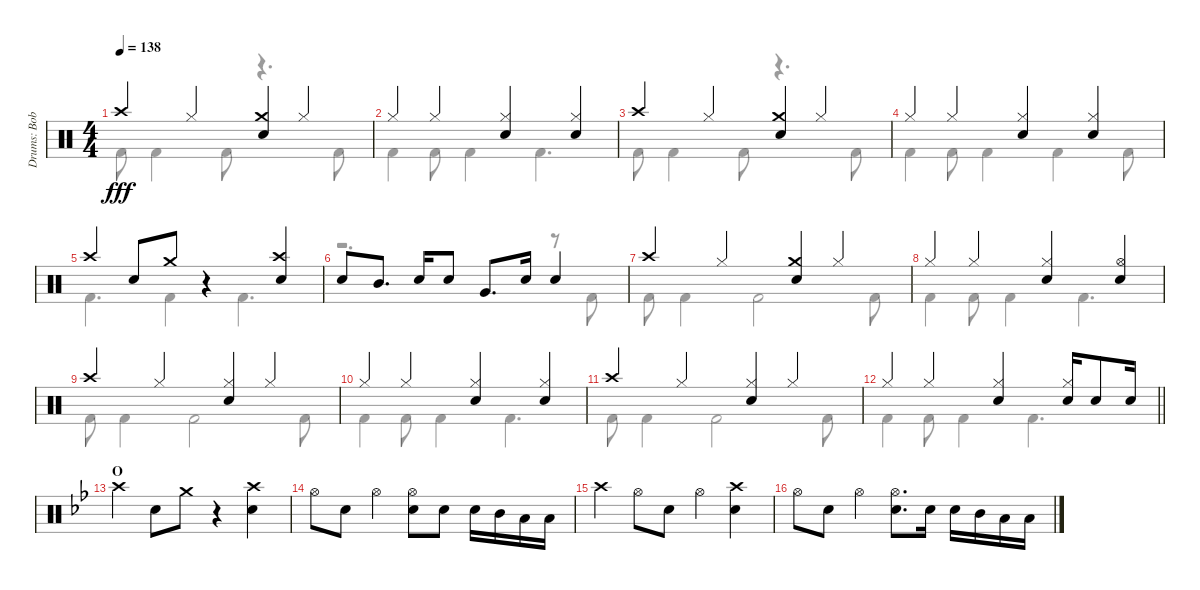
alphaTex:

\track ("Drums: Bobby" "Drums: Bob") {instrument percussion}
\staff {score}
\articulation defaults
\voice
\ts (4 4)
\tempo 138
\clef neutral
\ks c "Crash high (hit)".4{dy fff} "Hi-Hat (closed)".4
("Crash medium (hit)" "Snare (hit) 2").4 "Hi-Hat (closed)".4 |
"Hi-Hat (closed)".4 "Hi-Hat (closed)".4 ("Hi-Hat (closed)" "Snare (hit) 2").4 ("Hi-Hat (closed)" "Snare (hit) 2").4 |
"Crash high (hit)".4 "Hi-Hat (closed)".4 ("Crash medium (hit)" "Snare (hit) 2").4 "Hi-Hat (closed)".4 |
"Hi-Hat (closed)".4 "Hi-Hat (closed)".4 ("Hi-Hat (closed)" "Snare (hit) 2").4 ("Hi-Hat (closed)" "Snare (hit) 2").4 |
"Crash high (hit)".4 "Snare (hit) 2".8 "Crash medium (hit)".8 r.4 ("Crash high (hit)" "Snare (hit) 2").4 |
"Snare (hit) 2".8 "Mid Tom (hit)".8{d} "Snare (hit) 2".16 "Snare (hit) 2".8 "Very Low Tom (hit)".8{d} "Snare (hit) 2".16 "Snare (hit) 2".4 |
"Crash high (hit)".4 "Hi-Hat (closed)".4 ("Crash medium (hit)" "Snare (hit) 2").4 "Hi-Hat (closed)".4 |
"Hi-Hat (closed)".4 "Hi-Hat (closed)".4 ("Hi-Hat (closed)" "Snare (hit) 2").4 ("Hi-Hat (open)" "Snare (hit) 2").4 |
"Crash high (hit)".4 "Hi-Hat (closed)".4 ("Hi-Hat (closed)" "Snare (hit) 2").4 "Hi-Hat (closed)".4 |
"Hi-Hat (closed)".4 "Hi-Hat (closed)".4 ("Hi-Hat (closed)" "Snare (hit) 2").4 ("Hi-Hat (closed)" "Snare (hit) 2").4 |
"Crash high (hit)".4 "Hi-Hat (closed)".4 ("Hi-Hat (closed)" "Snare (hit) 2").4 "Hi-Hat (closed)".4 |
\barLineRight lightlight "Hi-Hat (closed)".4 "Hi-Hat (closed)".4
("Hi-Hat (closed)" "Snare (hit) 2").4 ("Hi-Hat (closed)" "Snare (hit) 2").16 "Snare (hit) 2".8 "Snare (hit) 2".16 |
\section ("" "O")
\ks bb "Crash high (hit)".4 "Snare (hit) 2".8 "Crash medium (hit)".8
r.4 ("Crash high (hit)" "Snare (hit) 2").4 |
"Hi-Hat (open)".8 "Snare (hit) 2".8 "Hi-Hat (open)".4 ("Hi-Hat (open)" "Snare (hit) 2").8 "Snare (hit) 2".8 "Snare (hit) 2".16 "Mid Tom (hit)".16 "Low Tom (hit)".16 "Low Tom (hit)".16 |
"Crash high (hit)".4 "Hi-Hat (open)".8 "Snare (hit) 2".8 "Hi-Hat (open)".4 ("Crash high (hit)" "Snare (hit) 2").4 |
"Hi-Hat (open)".8 "Snare (hit) 2".8 "Hi-Hat (open)".4 ("Hi-Hat (open)" "Snare (hit) 2").8{d} "Snare (hit) 2".16 "Snare (hit) 2".16 "Mid Tom (hit)".16 "Low Tom (hit)".16 "Low Tom (hit)".16
\voice
\clef neutral
\ottava regular
\simile none
\ks c "Kick (hit) 2".8{dy fff} "Kick (hit) 2".4 "Kick (hit) 2".8
r.4{d} "Kick (hit) 2".8 |
"Kick (hit) 2".4 "Kick (hit) 2".8 "Kick (hit) 2".4 "Kick (hit) 2".4{d} |
"Kick (hit) 2".8 "Kick (hit) 2".4 "Kick (hit) 2".8 r.4{d} "Kick (hit) 2".8 |
"Kick (hit) 2".4 "Kick (hit) 2".8 "Kick (hit) 2".4 "Kick (hit) 2".4 "Kick (hit) 2".8 |
"Kick (hit) 2".4{d} "Kick (hit) 2".4 "Kick (hit) 2".4{d} |
r.2{d} r.8 "Kick (hit) 2".8 |
"Kick (hit) 2".8 "Kick (hit) 2".4 "Kick (hit) 2".2 "Kick (hit) 2".8 |
"Kick (hit) 2".4 "Kick (hit) 2".8 "Kick (hit) 2".4 "Kick (hit) 2".4{d} |
"Kick (hit) 2".8 "Kick (hit) 2".4 "Kick (hit) 2".2 "Kick (hit) 2".8 |
"Kick (hit) 2".4 "Kick (hit) 2".8 "Kick (hit) 2".4 "Kick (hit) 2".4{d} |
"Kick (hit) 2".8 "Kick (hit) 2".4 "Kick (hit) 2".2 "Kick (hit) 2".8 |
\barLineRight lightlight "Kick (hit) 2".4 "Kick (hit) 2".8 "Kick (hit) 2".4 "Kick (hit) 2".4{d}
|
\ks bb
|
|
|
